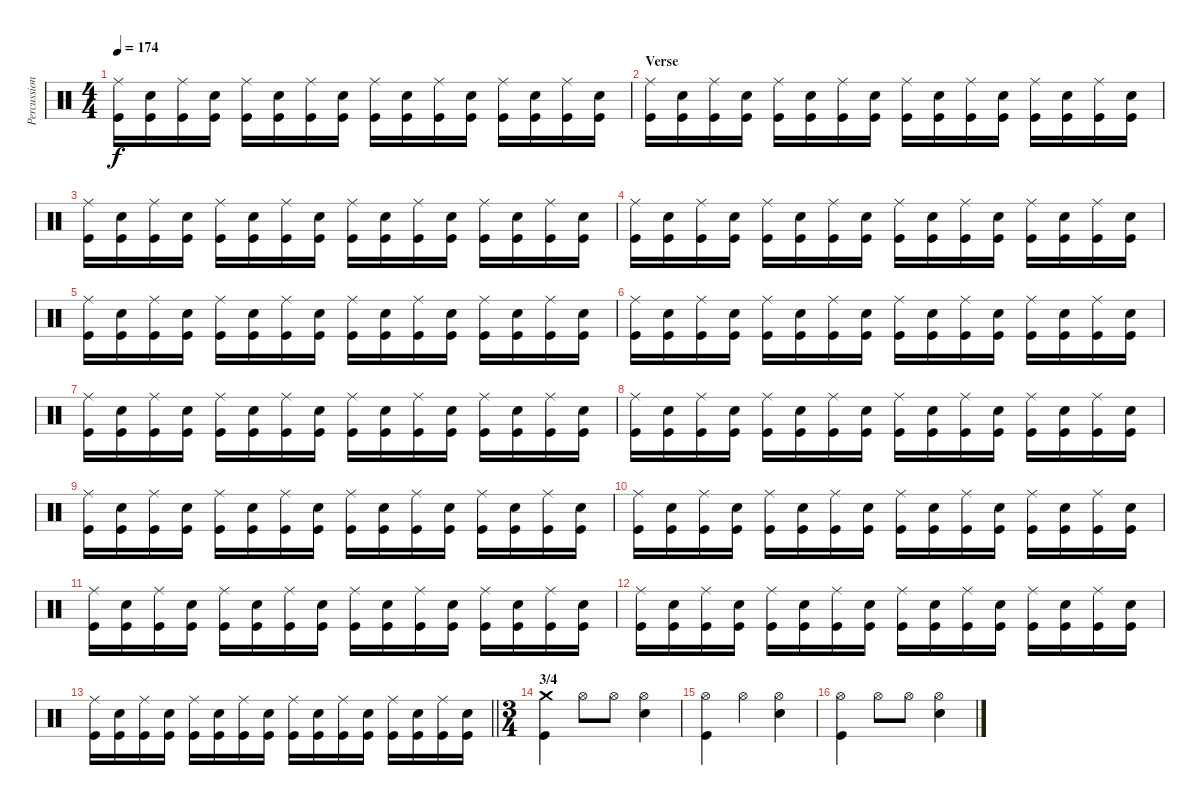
\track ("Percussion" "Percussion") {instrument percussion}
\staff {score}
\articulation defaults
\ts (4 4)
\tempo 174
\clef neutral
\ks c
("Ride (middle)" "Kick (hit)").16{dy f} ("Electric Snare (hit)" "Kick (hit)").16 ("Ride (middle)" "Kick (hit)").16 ("Electric Snare (hit)" "Kick (hit)").16 ("Ride (middle)" "Kick (hit)").16 ("Electric Snare (hit)" "Kick (hit)").16 ("Ride (middle)" "Kick (hit)").16 ("Electric Snare (hit)" "Kick (hit)").16 ("Ride (middle)" "Kick (hit)").16 ("Electric Snare (hit)" "Kick (hit)").16 ("Ride (middle)" "Kick (hit)").16 ("Electric Snare (hit)" "Kick (hit)").16 ("Ride (middle)" "Kick (hit)").16 ("Electric Snare (hit)" "Kick (hit)").16 ("Ride (middle)" "Kick (hit)").16 ("Electric Snare (hit)" "Kick (hit)").16 |
\section ("" "Verse")
("Ride (middle)" "Kick (hit)").16 ("Electric Snare (hit)" "Kick (hit)").16 ("Ride (middle)" "Kick (hit)").16 ("Electric Snare (hit)" "Kick (hit)").16 ("Ride (middle)" "Kick (hit)").16 ("Electric Snare (hit)" "Kick (hit)").16 ("Ride (middle)" "Kick (hit)").16 ("Electric Snare (hit)" "Kick (hit)").16 ("Ride (middle)" "Kick (hit)").16 ("Electric Snare (hit)" "Kick (hit)").16 ("Ride (middle)" "Kick (hit)").16 ("Electric Snare (hit)" "Kick (hit)").16 ("Ride (middle)" "Kick (hit)").16 ("Electric Snare (hit)" "Kick (hit)").16 ("Ride (middle)" "Kick (hit)").16 ("Electric Snare (hit)" "Kick (hit)").16 |
("Ride (middle)" "Kick (hit)").16 ("Electric Snare (hit)" "Kick (hit)").16 ("Ride (middle)" "Kick (hit)").16 ("Electric Snare (hit)" "Kick (hit)").16 ("Ride (middle)" "Kick (hit)").16 ("Electric Snare (hit)" "Kick (hit)").16 ("Ride (middle)" "Kick (hit)").16 ("Electric Snare (hit)" "Kick (hit)").16 ("Ride (middle)" "Kick (hit)").16 ("Electric Snare (hit)" "Kick (hit)").16 ("Ride (middle)" "Kick (hit)").16 ("Electric Snare (hit)" "Kick (hit)").16 ("Ride (middle)" "Kick (hit)").16 ("Electric Snare (hit)" "Kick (hit)").16 ("Ride (middle)" "Kick (hit)").16 ("Electric Snare (hit)" "Kick (hit)").16 |
("Ride (middle)" "Kick (hit)").16 ("Electric Snare (hit)" "Kick (hit)").16 ("Ride (middle)" "Kick (hit)").16 ("Electric Snare (hit)" "Kick (hit)").16 ("Ride (middle)" "Kick (hit)").16 ("Electric Snare (hit)" "Kick (hit)").16 ("Ride (middle)" "Kick (hit)").16 ("Electric Snare (hit)" "Kick (hit)").16 ("Ride (middle)" "Kick (hit)").16 ("Electric Snare (hit)" "Kick (hit)").16 ("Ride (middle)" "Kick (hit)").16 ("Electric Snare (hit)" "Kick (hit)").16 ("Ride (middle)" "Kick (hit)").16 ("Electric Snare (hit)" "Kick (hit)").16 ("Ride (middle)" "Kick (hit)").16 ("Electric Snare (hit)" "Kick (hit)").16 |
("Ride (middle)" "Kick (hit)").16 ("Electric Snare (hit)" "Kick (hit)").16 ("Ride (middle)" "Kick (hit)").16 ("Electric Snare (hit)" "Kick (hit)").16 ("Ride (middle)" "Kick (hit)").16 ("Electric Snare (hit)" "Kick (hit)").16 ("Ride (middle)" "Kick (hit)").16 ("Electric Snare (hit)" "Kick (hit)").16 ("Ride (middle)" "Kick (hit)").16 ("Electric Snare (hit)" "Kick (hit)").16 ("Ride (middle)" "Kick (hit)").16 ("Electric Snare (hit)" "Kick (hit)").16 ("Ride (middle)" "Kick (hit)").16 ("Electric Snare (hit)" "Kick (hit)").16 ("Ride (middle)" "Kick (hit)").16 ("Electric Snare (hit)" "Kick (hit)").16 |
("Ride (middle)" "Kick (hit)").16 ("Electric Snare (hit)" "Kick (hit)").16 ("Ride (middle)" "Kick (hit)").16 ("Electric Snare (hit)" "Kick (hit)").16 ("Ride (middle)" "Kick (hit)").16 ("Electric Snare (hit)" "Kick (hit)").16 ("Ride (middle)" "Kick (hit)").16 ("Electric Snare (hit)" "Kick (hit)").16 ("Ride (middle)" "Kick (hit)").16 ("Electric Snare (hit)" "Kick (hit)").16 ("Ride (middle)" "Kick (hit)").16 ("Electric Snare (hit)" "Kick (hit)").16 ("Ride (middle)" "Kick (hit)").16 ("Electric Snare (hit)" "Kick (hit)").16 ("Ride (middle)" "Kick (hit)").16 ("Electric Snare (hit)" "Kick (hit)").16 |
("Ride (middle)" "Kick (hit)").16 ("Electric Snare (hit)" "Kick (hit)").16 ("Ride (middle)" "Kick (hit)").16 ("Electric Snare (hit)" "Kick (hit)").16 ("Ride (middle)" "Kick (hit)").16 ("Electric Snare (hit)" "Kick (hit)").16 ("Ride (middle)" "Kick (hit)").16 ("Electric Snare (hit)" "Kick (hit)").16 ("Ride (middle)" "Kick (hit)").16 ("Electric Snare (hit)" "Kick (hit)").16 ("Ride (middle)" "Kick (hit)").16 ("Electric Snare (hit)" "Kick (hit)").16 ("Ride (middle)" "Kick (hit)").16 ("Electric Snare (hit)" "Kick (hit)").16 ("Ride (middle)" "Kick (hit)").16 ("Electric Snare (hit)" "Kick (hit)").16 |
("Ride (middle)" "Kick (hit)").16 ("Electric Snare (hit)" "Kick (hit)").16 ("Ride (middle)" "Kick (hit)").16 ("Electric Snare (hit)" "Kick (hit)").16 ("Ride (middle)" "Kick (hit)").16 ("Electric Snare (hit)" "Kick (hit)").16 ("Ride (middle)" "Kick (hit)").16 ("Electric Snare (hit)" "Kick (hit)").16 ("Ride (middle)" "Kick (hit)").16 ("Electric Snare (hit)" "Kick (hit)").16 ("Ride (middle)" "Kick (hit)").16 ("Electric Snare (hit)" "Kick (hit)").16 ("Ride (middle)" "Kick (hit)").16 ("Electric Snare (hit)" "Kick (hit)").16 ("Ride (middle)" "Kick (hit)").16 ("Electric Snare (hit)" "Kick (hit)").16 |
("Ride (middle)" "Kick (hit)").16 ("Electric Snare (hit)" "Kick (hit)").16 ("Ride (middle)" "Kick (hit)").16 ("Electric Snare (hit)" "Kick (hit)").16 ("Ride (middle)" "Kick (hit)").16 ("Electric Snare (hit)" "Kick (hit)").16 ("Ride (middle)" "Kick (hit)").16 ("Electric Snare (hit)" "Kick (hit)").16 ("Ride (middle)" "Kick (hit)").16 ("Electric Snare (hit)" "Kick (hit)").16 ("Ride (middle)" "Kick (hit)").16 ("Electric Snare (hit)" "Kick (hit)").16 ("Ride (middle)" "Kick (hit)").16 ("Electric Snare (hit)" "Kick (hit)").16 ("Ride (middle)" "Kick (hit)").16 ("Electric Snare (hit)" "Kick (hit)").16 |
("Ride (middle)" "Kick (hit)").16 ("Electric Snare (hit)" "Kick (hit)").16 ("Ride (middle)" "Kick (hit)").16 ("Electric Snare (hit)" "Kick (hit)").16 ("Ride (middle)" "Kick (hit)").16 ("Electric Snare (hit)" "Kick (hit)").16 ("Ride (middle)" "Kick (hit)").16 ("Electric Snare (hit)" "Kick (hit)").16 ("Ride (middle)" "Kick (hit)").16 ("Electric Snare (hit)" "Kick (hit)").16 ("Ride (middle)" "Kick (hit)").16 ("Electric Snare (hit)" "Kick (hit)").16 ("Ride (middle)" "Kick (hit)").16 ("Electric Snare (hit)" "Kick (hit)").16 ("Ride (middle)" "Kick (hit)").16 ("Electric Snare (hit)" "Kick (hit)").16 |
("Ride (middle)" "Kick (hit)").16 ("Electric Snare (hit)" "Kick (hit)").16 ("Ride (middle)" "Kick (hit)").16 ("Electric Snare (hit)" "Kick (hit)").16 ("Ride (middle)" "Kick (hit)").16 ("Electric Snare (hit)" "Kick (hit)").16 ("Ride (middle)" "Kick (hit)").16 ("Electric Snare (hit)" "Kick (hit)").16 ("Ride (middle)" "Kick (hit)").16 ("Electric Snare (hit)" "Kick (hit)").16 ("Ride (middle)" "Kick (hit)").16 ("Electric Snare (hit)" "Kick (hit)").16 ("Ride (middle)" "Kick (hit)").16 ("Electric Snare (hit)" "Kick (hit)").16 ("Ride (middle)" "Kick (hit)").16 ("Electric Snare (hit)" "Kick (hit)").16 |
("Ride (middle)" "Kick (hit)").16 ("Electric Snare (hit)" "Kick (hit)").16 ("Ride (middle)" "Kick (hit)").16 ("Electric Snare (hit)" "Kick (hit)").16 ("Ride (middle)" "Kick (hit)").16 ("Electric Snare (hit)" "Kick (hit)").16 ("Ride (middle)" "Kick (hit)").16 ("Electric Snare (hit)" "Kick (hit)").16 ("Ride (middle)" "Kick (hit)").16 ("Electric Snare (hit)" "Kick (hit)").16 ("Ride (middle)" "Kick (hit)").16 ("Electric Snare (hit)" "Kick (hit)").16 ("Ride (middle)" "Kick (hit)").16 ("Electric Snare (hit)" "Kick (hit)").16 ("Ride (middle)" "Kick (hit)").16 ("Electric Snare (hit)" "Kick (hit)").16 |
\barLineRight lightlight
("Ride (middle)" "Kick (hit)").16 ("Electric Snare (hit)" "Kick (hit)").16 ("Ride (middle)" "Kick (hit)").16 ("Electric Snare (hit)" "Kick (hit)").16 ("Ride (middle)" "Kick (hit)").16 ("Electric Snare (hit)" "Kick (hit)").16 ("Ride (middle)" "Kick (hit)").16 ("Electric Snare (hit)" "Kick (hit)").16 ("Ride (middle)" "Kick (hit)").16 ("Electric Snare (hit)" "Kick (hit)").16 ("Ride (middle)" "Kick (hit)").16 ("Electric Snare (hit)" "Kick (hit)").16 ("Ride (middle)" "Kick (hit)").16 ("Electric Snare (hit)" "Kick (hit)").16 ("Ride (middle)" "Kick (hit)").16 ("Electric Snare (hit)" "Kick (hit)").16 |
\ts (3 4)
\section ("" "3/4")
("Crash medium (hit)" "Kick (hit)").4 "Hi-Hat (open)".8 "Hi-Hat (open)".8 ("Hi-Hat (open)" "Electric Snare (hit)").4 |
("Hi-Hat (open)" "Kick (hit)").4 "Hi-Hat (open)".4 ("Hi-Hat (open)" "Electric Snare (hit)").4 |
("Hi-Hat (open)" "Kick (hit)").4 "Hi-Hat (open)".8 "Hi-Hat (open)".8 ("Hi-Hat (open)" "Electric Snare (hit)").4
